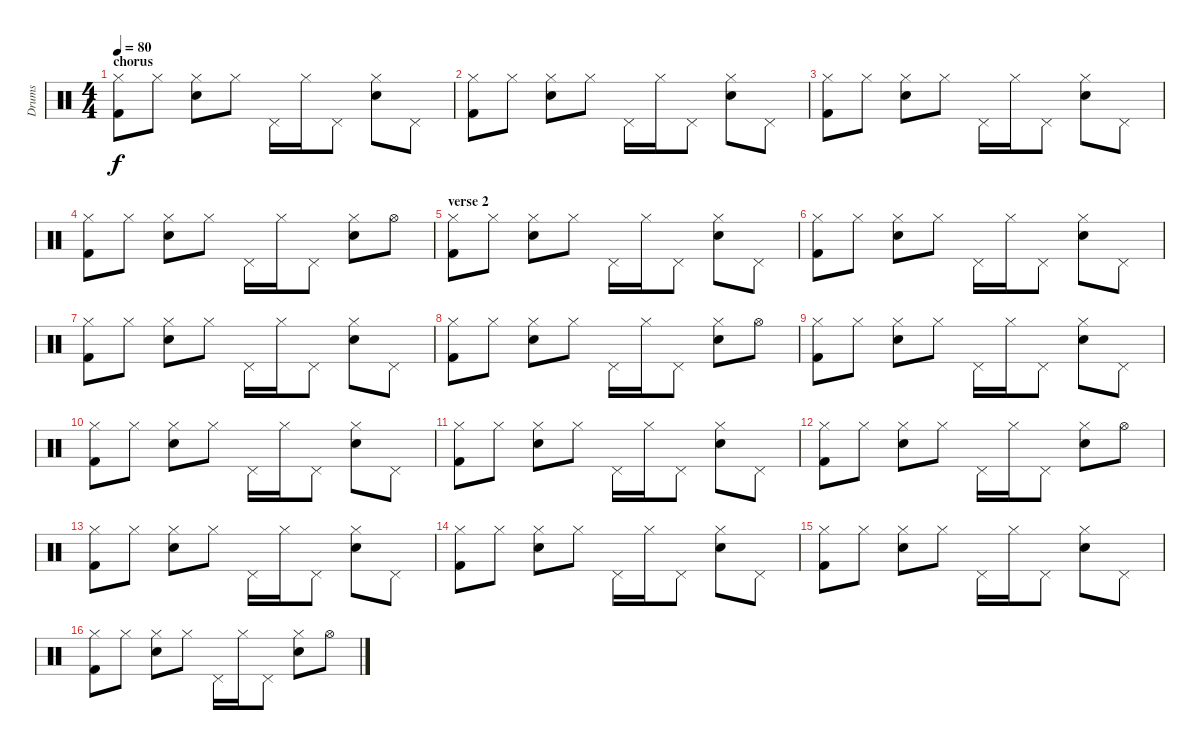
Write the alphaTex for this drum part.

\track ("Drums" "Drums") {instrument percussion}
\staff {score}
\articulation defaults
\ts (4 4)
\section ("" "chorus")
\tempo 80
\clef neutral
\ks c
("Kick (hit) 2" "Hi-Hat (closed)").8{dy f} "Hi-Hat (closed)".8 ("Snare (hit) 2" "Hi-Hat (closed)").8 "Hi-Hat (closed)".8 "Pedal Hi-Hat (hit)".16 "Hi-Hat (closed)".16 "Pedal Hi-Hat (hit)".8 ("Snare (hit) 2" "Hi-Hat (closed)").8 "Pedal Hi-Hat (hit)".8 |
("Kick (hit) 2" "Hi-Hat (closed)").8 "Hi-Hat (closed)".8 ("Snare (hit) 2" "Hi-Hat (closed)").8 "Hi-Hat (closed)".8 "Pedal Hi-Hat (hit)".16 "Hi-Hat (closed)".16 "Pedal Hi-Hat (hit)".8 ("Snare (hit) 2" "Hi-Hat (closed)").8 "Pedal Hi-Hat (hit)".8 |
("Kick (hit) 2" "Hi-Hat (closed)").8 "Hi-Hat (closed)".8 ("Snare (hit) 2" "Hi-Hat (closed)").8 "Hi-Hat (closed)".8 "Pedal Hi-Hat (hit)".16 "Hi-Hat (closed)".16 "Pedal Hi-Hat (hit)".8 ("Snare (hit) 2" "Hi-Hat (closed)").8 "Pedal Hi-Hat (hit)".8 |
("Kick (hit) 2" "Hi-Hat (closed)").8 "Hi-Hat (closed)".8 ("Snare (hit) 2" "Hi-Hat (closed)").8 "Hi-Hat (closed)".8 "Pedal Hi-Hat (hit)".16 "Hi-Hat (closed)".16 "Pedal Hi-Hat (hit)".8 ("Snare (hit) 2" "Hi-Hat (closed)").8 "Hi-Hat (open)".8 |
\section ("" "verse 2")
("Kick (hit) 2" "Hi-Hat (closed)").8 "Hi-Hat (closed)".8 ("Snare (hit) 2" "Hi-Hat (closed)").8 "Hi-Hat (closed)".8 "Pedal Hi-Hat (hit)".16 "Hi-Hat (closed)".16 "Pedal Hi-Hat (hit)".8 ("Snare (hit) 2" "Hi-Hat (closed)").8 "Pedal Hi-Hat (hit)".8 |
("Kick (hit) 2" "Hi-Hat (closed)").8 "Hi-Hat (closed)".8 ("Snare (hit) 2" "Hi-Hat (closed)").8 "Hi-Hat (closed)".8 "Pedal Hi-Hat (hit)".16 "Hi-Hat (closed)".16 "Pedal Hi-Hat (hit)".8 ("Snare (hit) 2" "Hi-Hat (closed)").8 "Pedal Hi-Hat (hit)".8 |
("Kick (hit) 2" "Hi-Hat (closed)").8 "Hi-Hat (closed)".8 ("Snare (hit) 2" "Hi-Hat (closed)").8 "Hi-Hat (closed)".8 "Pedal Hi-Hat (hit)".16 "Hi-Hat (closed)".16 "Pedal Hi-Hat (hit)".8 ("Snare (hit) 2" "Hi-Hat (closed)").8 "Pedal Hi-Hat (hit)".8 |
("Kick (hit) 2" "Hi-Hat (closed)").8 "Hi-Hat (closed)".8 ("Snare (hit) 2" "Hi-Hat (closed)").8 "Hi-Hat (closed)".8 "Pedal Hi-Hat (hit)".16 "Hi-Hat (closed)".16 "Pedal Hi-Hat (hit)".8 ("Snare (hit) 2" "Hi-Hat (closed)").8 "Hi-Hat (open)".8 |
("Kick (hit) 2" "Hi-Hat (closed)").8 "Hi-Hat (closed)".8 ("Snare (hit) 2" "Hi-Hat (closed)").8 "Hi-Hat (closed)".8 "Pedal Hi-Hat (hit)".16 "Hi-Hat (closed)".16 "Pedal Hi-Hat (hit)".8 ("Snare (hit) 2" "Hi-Hat (closed)").8 "Pedal Hi-Hat (hit)".8 |
("Kick (hit) 2" "Hi-Hat (closed)").8 "Hi-Hat (closed)".8 ("Snare (hit) 2" "Hi-Hat (closed)").8 "Hi-Hat (closed)".8 "Pedal Hi-Hat (hit)".16 "Hi-Hat (closed)".16 "Pedal Hi-Hat (hit)".8 ("Snare (hit) 2" "Hi-Hat (closed)").8 "Pedal Hi-Hat (hit)".8 |
("Kick (hit) 2" "Hi-Hat (closed)").8 "Hi-Hat (closed)".8 ("Snare (hit) 2" "Hi-Hat (closed)").8 "Hi-Hat (closed)".8 "Pedal Hi-Hat (hit)".16 "Hi-Hat (closed)".16 "Pedal Hi-Hat (hit)".8 ("Snare (hit) 2" "Hi-Hat (closed)").8 "Pedal Hi-Hat (hit)".8 |
("Kick (hit) 2" "Hi-Hat (closed)").8 "Hi-Hat (closed)".8 ("Snare (hit) 2" "Hi-Hat (closed)").8 "Hi-Hat (closed)".8 "Pedal Hi-Hat (hit)".16 "Hi-Hat (closed)".16 "Pedal Hi-Hat (hit)".8 ("Snare (hit) 2" "Hi-Hat (closed)").8 "Hi-Hat (open)".8 |
("Kick (hit) 2" "Hi-Hat (closed)").8 "Hi-Hat (closed)".8 ("Snare (hit) 2" "Hi-Hat (closed)").8 "Hi-Hat (closed)".8 "Pedal Hi-Hat (hit)".16 "Hi-Hat (closed)".16 "Pedal Hi-Hat (hit)".8 ("Snare (hit) 2" "Hi-Hat (closed)").8 "Pedal Hi-Hat (hit)".8 |
("Kick (hit) 2" "Hi-Hat (closed)").8 "Hi-Hat (closed)".8 ("Snare (hit) 2" "Hi-Hat (closed)").8 "Hi-Hat (closed)".8 "Pedal Hi-Hat (hit)".16 "Hi-Hat (closed)".16 "Pedal Hi-Hat (hit)".8 ("Snare (hit) 2" "Hi-Hat (closed)").8 "Pedal Hi-Hat (hit)".8 |
("Kick (hit) 2" "Hi-Hat (closed)").8 "Hi-Hat (closed)".8 ("Snare (hit) 2" "Hi-Hat (closed)").8 "Hi-Hat (closed)".8 "Pedal Hi-Hat (hit)".16 "Hi-Hat (closed)".16 "Pedal Hi-Hat (hit)".8 ("Snare (hit) 2" "Hi-Hat (closed)").8 "Pedal Hi-Hat (hit)".8 |
("Kick (hit) 2" "Hi-Hat (closed)").8 "Hi-Hat (closed)".8 ("Snare (hit) 2" "Hi-Hat (closed)").8 "Hi-Hat (closed)".8 "Pedal Hi-Hat (hit)".16 "Hi-Hat (closed)".16 "Pedal Hi-Hat (hit)".8 ("Snare (hit) 2" "Hi-Hat (closed)").8 "Hi-Hat (open)".8
